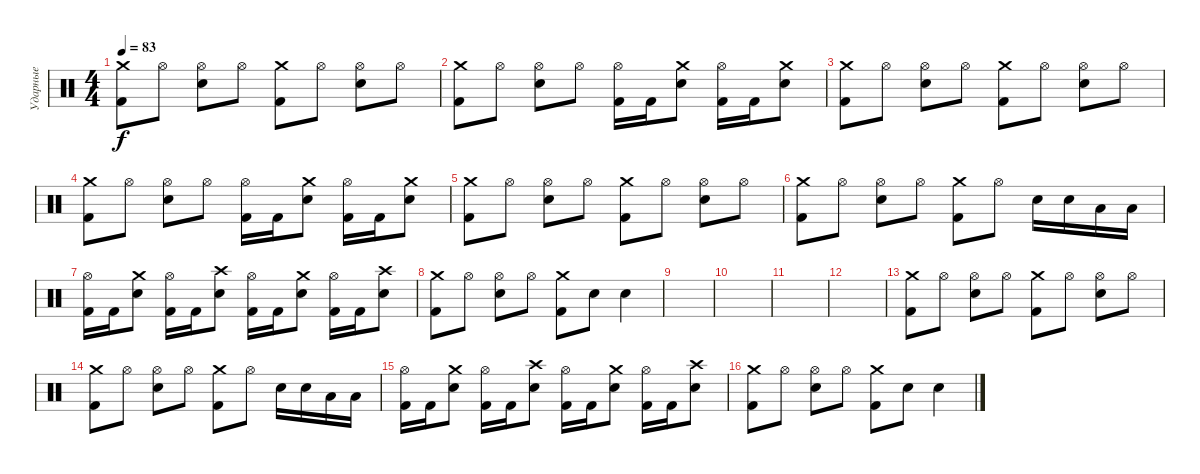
\track ("Ударные" "Ударные") {instrument percussion}
\staff {score}
\articulation defaults
\ts (4 4)
\tempo 83
\clef neutral
\ks c
("Crash medium (hit)" "Kick (hit) 2").8{dy f} "Hi-Hat (open)".8 ("Snare (hit) 2" "Hi-Hat (open)").8 "Hi-Hat (open)".8 ("Crash medium (hit)" "Kick (hit) 2").8 "Hi-Hat (open)".8 ("Snare (hit) 2" "Hi-Hat (open)").8 "Hi-Hat (open)".8 |
("Crash medium (hit)" "Kick (hit) 2").8 "Hi-Hat (open)".8 ("Snare (hit) 2" "Hi-Hat (open)").8 "Hi-Hat (open)".8 ("Hi-Hat (open)" "Kick (hit) 2").16 "Kick (hit) 2".16 ("Crash medium (hit)" "Snare (hit) 2").8 ("Hi-Hat (open)" "Kick (hit) 2").16 "Kick (hit) 2".16 ("Crash medium (hit)" "Snare (hit) 2").8 |
("Crash medium (hit)" "Kick (hit) 2").8 "Hi-Hat (open)".8 ("Snare (hit) 2" "Hi-Hat (open)").8 "Hi-Hat (open)".8 ("Crash medium (hit)" "Kick (hit) 2").8 "Hi-Hat (open)".8 ("Snare (hit) 2" "Hi-Hat (open)").8 "Hi-Hat (open)".8 |
("Crash medium (hit)" "Kick (hit) 2").8 "Hi-Hat (open)".8 ("Snare (hit) 2" "Hi-Hat (open)").8 "Hi-Hat (open)".8 ("Hi-Hat (open)" "Kick (hit) 2").16 "Kick (hit) 2".16 ("Crash medium (hit)" "Snare (hit) 2").8 ("Hi-Hat (open)" "Kick (hit) 2").16 "Kick (hit) 2".16 ("Crash medium (hit)" "Snare (hit) 2").8 |
("Crash medium (hit)" "Kick (hit) 2").8 "Hi-Hat (open)".8 ("Snare (hit) 2" "Hi-Hat (open)").8 "Hi-Hat (open)".8 ("Crash medium (hit)" "Kick (hit) 2").8 "Hi-Hat (open)".8 ("Snare (hit) 2" "Hi-Hat (open)").8 "Hi-Hat (open)".8 |
("Crash medium (hit)" "Kick (hit) 2").8 "Hi-Hat (open)".8 ("Snare (hit) 2" "Hi-Hat (open)").8 "Hi-Hat (open)".8 ("Crash medium (hit)" "Kick (hit) 2").8 "Hi-Hat (open)".8 "Snare (hit) 2".16 "Snare (hit) 2".16 "Low Tom (hit)".16 "Low Tom (hit)".16 |
("Hi-Hat (open)" "Kick (hit) 2").16 "Kick (hit) 2".16 ("Crash medium (hit)" "Snare (hit) 2").8 ("Hi-Hat (open)" "Kick (hit) 2").16 "Kick (hit) 2".16 ("Crash high (hit)" "Snare (hit) 2").8 ("Hi-Hat (open)" "Kick (hit) 2").16 "Kick (hit) 2".16 ("Crash medium (hit)" "Snare (hit) 2").8 ("Hi-Hat (open)" "Kick (hit) 2").16 "Kick (hit) 2".16 ("Crash high (hit)" "Snare (hit) 2").8 |
("Crash medium (hit)" "Kick (hit) 2").8 "Hi-Hat (open)".8 ("Snare (hit) 2" "Hi-Hat (open)").8 "Hi-Hat (open)".8 ("Crash medium (hit)" "Kick (hit) 2").8 "Snare (hit) 2".8 "Snare (hit) 2".4 |
|
|
|
|
("Crash medium (hit)" "Kick (hit) 2").8 "Hi-Hat (open)".8 ("Snare (hit) 2" "Hi-Hat (open)").8 "Hi-Hat (open)".8 ("Crash medium (hit)" "Kick (hit) 2").8 "Hi-Hat (open)".8 ("Snare (hit) 2" "Hi-Hat (open)").8 "Hi-Hat (open)".8 |
("Crash medium (hit)" "Kick (hit) 2").8 "Hi-Hat (open)".8 ("Snare (hit) 2" "Hi-Hat (open)").8 "Hi-Hat (open)".8 ("Crash medium (hit)" "Kick (hit) 2").8 "Hi-Hat (open)".8 "Snare (hit) 2".16 "Snare (hit) 2".16 "Low Tom (hit)".16 "Low Tom (hit)".16 |
("Hi-Hat (open)" "Kick (hit) 2").16 "Kick (hit) 2".16 ("Crash medium (hit)" "Snare (hit) 2").8 ("Hi-Hat (open)" "Kick (hit) 2").16 "Kick (hit) 2".16 ("Crash high (hit)" "Snare (hit) 2").8 ("Hi-Hat (open)" "Kick (hit) 2").16 "Kick (hit) 2".16 ("Crash medium (hit)" "Snare (hit) 2").8 ("Hi-Hat (open)" "Kick (hit) 2").16 "Kick (hit) 2".16 ("Crash high (hit)" "Snare (hit) 2").8 |
("Crash medium (hit)" "Kick (hit) 2").8 "Hi-Hat (open)".8 ("Snare (hit) 2" "Hi-Hat (open)").8 "Hi-Hat (open)".8 ("Crash medium (hit)" "Kick (hit) 2").8 "Snare (hit) 2".8 "Snare (hit) 2".4
